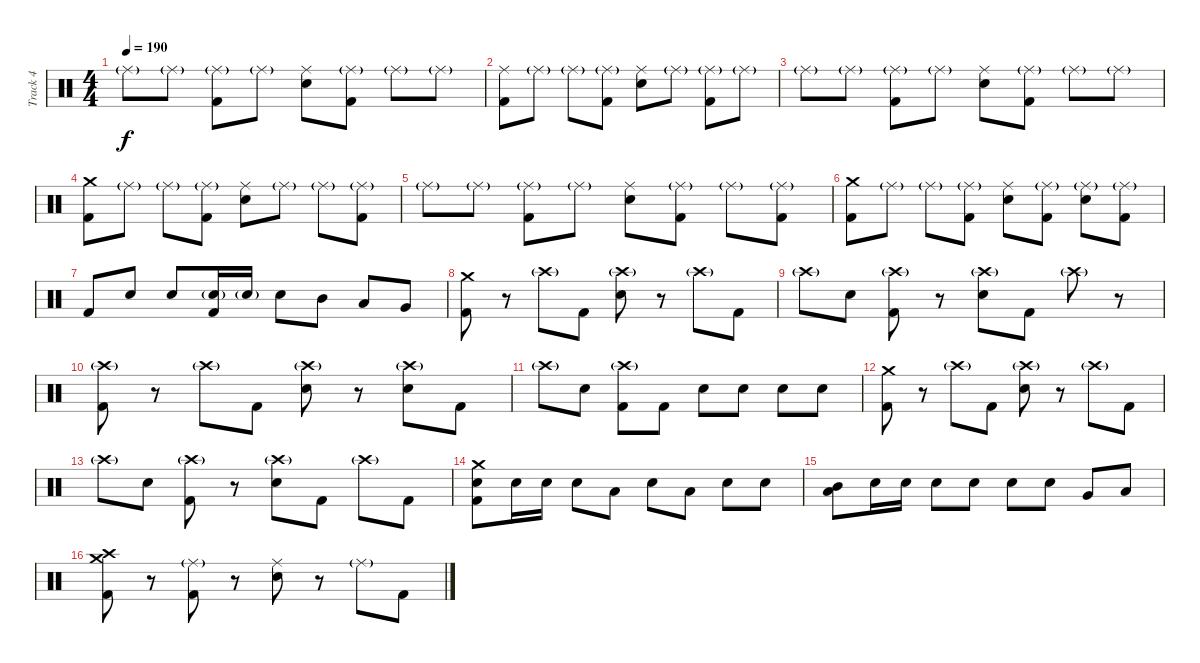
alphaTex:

\track ("Track 4" "Track 4") {instrument percussion}
\staff {score}
\articulation defaults
\ts (4 4)
\tempo 190
\clef neutral
\ks c "Ride (middle)"{g}.8{dy f} "Ride (middle)"{g}.8
("Ride (middle)"{g} "Kick (hit) 2").8 "Ride (middle)"{g}.8 ("Ride (middle)" "Electric Snare (hit)").8 ("Ride (middle)"{g} "Kick (hit) 2").8 "Ride (middle)"{g}.8 "Ride (middle)"{g}.8 |
("Ride (middle)" "Kick (hit) 2").8 "Ride (middle)"{g}.8 "Ride (middle)"{g}.8 ("Ride (middle)"{g} "Kick (hit) 2").8 ("Ride (middle)" "Electric Snare (hit)").8 "Ride (middle)"{g}.8 ("Ride (middle)"{g} "Kick (hit) 2").8 "Ride (middle)"{g}.8 |
"Ride (middle)"{g}.8 "Ride (middle)"{g}.8 ("Ride (middle)"{g} "Kick (hit) 2").8 "Ride (middle)"{g}.8 ("Ride (middle)" "Electric Snare (hit)").8 ("Ride (middle)"{g} "Kick (hit) 2").8 "Ride (middle)"{g}.8 "Ride (middle)"{g}.8 |
("Crash medium (hit)" "Kick (hit) 2").8 "Ride (middle)"{g}.8 "Ride (middle)"{g}.8 ("Ride (middle)"{g} "Kick (hit) 2").8 ("Ride (middle)" "Electric Snare (hit)").8 "Ride (middle)"{g}.8 "Ride (middle)"{g}.8 ("Ride (middle)"{g} "Kick (hit) 2").8 |
"Ride (middle)"{g}.8 "Ride (middle)"{g}.8 ("Ride (middle)"{g} "Kick (hit) 2").8 "Ride (middle)"{g}.8 ("Ride (middle)" "Electric Snare (hit)").8 ("Ride (middle)"{g} "Kick (hit) 2").8 "Ride (middle)"{g}.8 ("Ride (middle)"{g} "Kick (hit) 2").8 |
("Crash medium (hit)" "Kick (hit) 2").8 "Ride (middle)"{g}.8 "Ride (middle)"{g}.8 ("Ride (middle)"{g} "Kick (hit) 2").8 ("Ride (middle)" "Electric Snare (hit)").8 ("Ride (middle)"{g} "Kick (hit) 2").8 ("Ride (middle)"{g} "Electric Snare (hit)").8 ("Ride (middle)"{g} "Kick (hit) 2").8 |
"Kick (hit) 2".8 "Electric Snare (hit)".8 "Electric Snare (hit)".8 ("Electric Snare (hit)"{g} "Kick (hit) 2").16 "Electric Snare (hit)"{g}.16 "Electric Snare (hit)".8 "Mid Tom (hit)".8 "Low Tom (hit)".8 "Very Low Tom (hit)".8 |
("Crash medium (hit)" "Kick (hit) 2").8 r.8 "Crash high (hit)"{g}.8 "Kick (hit) 2".8 ("Crash high (hit)"{g} "Electric Snare (hit)").8 r.8 "Crash high (hit)"{g}.8 "Kick (hit) 2".8 |
"Crash high (hit)"{g}.8 "Electric Snare (hit)".8 ("Crash high (hit)"{g} "Kick (hit) 2").8 r.8 ("Crash high (hit)"{g} "Electric Snare (hit)").8 "Kick (hit) 2".8 "Crash high (hit)"{g}.8 r.8 |
("Crash high (hit)"{g} "Kick (hit) 2").8 r.8 "Crash high (hit)"{g}.8 "Kick (hit) 2".8 ("Crash high (hit)"{g} "Electric Snare (hit)").8 r.8 ("Crash high (hit)"{g} "Electric Snare (hit)").8 "Kick (hit) 2".8 |
"Crash high (hit)"{g}.8 "Electric Snare (hit)".8 ("Crash high (hit)"{g} "Kick (hit) 2").8 "Kick (hit) 2".8 "Electric Snare (hit)".8 "Electric Snare (hit)".8 "Electric Snare (hit)".8 "Electric Snare (hit)".8 |
("Crash medium (hit)" "Kick (hit) 2").8 r.8 "Crash high (hit)"{g}.8 "Kick (hit) 2".8 ("Crash high (hit)"{g} "Electric Snare (hit)").8 r.8 "Crash high (hit)"{g}.8 "Kick (hit) 2".8 |
"Crash high (hit)"{g}.8 "Electric Snare (hit)".8 ("Crash high (hit)"{g} "Kick (hit) 2").8 r.8 ("Crash high (hit)"{g} "Electric Snare (hit)").8 "Kick (hit) 2".8 "Crash high (hit)"{g}.8 "Kick (hit) 2".8 |
("Crash medium (hit)" "Electric Snare (hit)" "Kick (hit) 2").8 "Electric Snare (hit)".16 "Electric Snare (hit)".16 "Electric Snare (hit)".8 "Low Tom (hit)".8 "Electric Snare (hit)".8 "Low Tom (hit)".8 "Electric Snare (hit)".8 "Electric Snare (hit)".8 |
("Mid Tom (hit)" "Low Tom (hit)").8 "Electric Snare (hit)".16 "Electric Snare (hit)".16 "Electric Snare (hit)".8 "Electric Snare (hit)".8 "Electric Snare (hit)".8 "Electric Snare (hit)".8 "Very Low Tom (hit)".8 "Low Floor Tom (hit)".8 |
("Crash medium (hit)" "Crash high (hit)" "Kick (hit) 2").8 r.8 ("Ride (middle)"{g} "Kick (hit) 2").8 r.8 ("Ride (middle)" "Electric Snare (hit)").8 r.8 "Ride (middle)"{g}.8 "Kick (hit) 2".8
